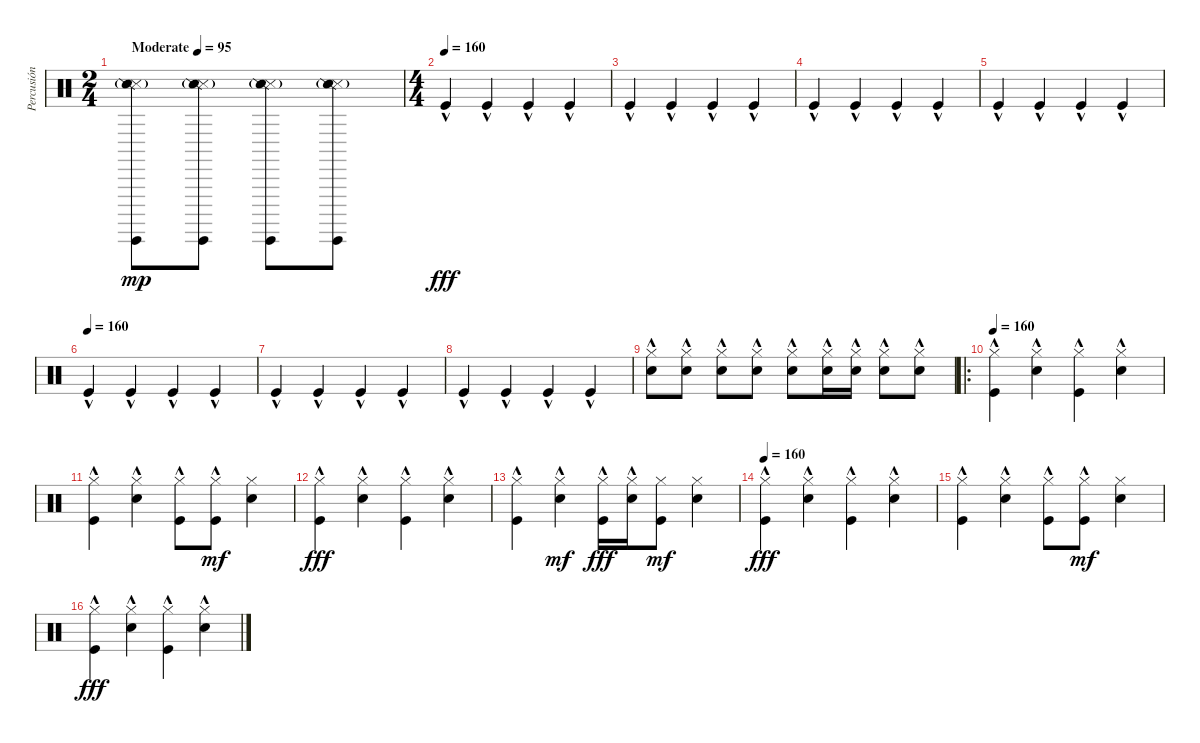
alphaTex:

\track ("Percusión" "Percusión") {instrument percussion}
\staff {score}
\articulation defaults
\ts (2 4)
\tempo (95 "Moderate")
\tempo 75
\tempo (95 "Moderate")
\clef neutral
\ks c
("Snare (side stick) 3"{g} "Guiro (hit)" "Snare (side stick) 2").8{dy mp} ("Snare (side stick) 3"{g} "Guiro (hit)" "Snare (side stick) 2").8 ("Snare (side stick) 3"{g} "Guiro (hit)" "Snare (side stick) 2").8 ("Snare (side stick) 3"{g} "Guiro (hit)" "Snare (side stick) 2").8 |
\ts (4 4)
\tempo (160)
"Kick (hit)"{hac}.4{dy fff} "Kick (hit)"{hac}.4 "Kick (hit)"{hac}.4 "Kick (hit)"{hac}.4 |
"Kick (hit)"{hac}.4 "Kick (hit)"{hac}.4 "Kick (hit)"{hac}.4 "Kick (hit)"{hac}.4 |
"Kick (hit)"{hac}.4 "Kick (hit)"{hac}.4 "Kick (hit)"{hac}.4 "Kick (hit)"{hac}.4 |
"Kick (hit)"{hac}.4 "Kick (hit)"{hac}.4 "Kick (hit)"{hac}.4 "Kick (hit)"{hac}.4 |
\tempo (160)
"Kick (hit)"{hac}.4 "Kick (hit)"{hac}.4 "Kick (hit)"{hac}.4 "Kick (hit)"{hac}.4 |
"Kick (hit)"{hac}.4 "Kick (hit)"{hac}.4 "Kick (hit)"{hac}.4 "Kick (hit)"{hac}.4 |
"Kick (hit)"{hac}.4 "Kick (hit)"{hac}.4 "Kick (hit)"{hac}.4 "Kick (hit)"{hac}.4 |
("Hi-Hat (closed)"{hac} "Snare (hit) 2"{hac}).8 ("Hi-Hat (closed)"{hac} "Snare (hit) 2"{hac}).8 ("Hi-Hat (closed)"{hac} "Snare (hit) 2"{hac}).8 ("Hi-Hat (closed)"{hac} "Snare (hit) 2"{hac}).8 ("Hi-Hat (closed)"{hac} "Snare (hit) 2"{hac}).8 ("Hi-Hat (closed)"{hac} "Snare (hit) 2"{hac}).16 ("Hi-Hat (closed)"{hac} "Snare (hit) 2"{hac}).16 ("Hi-Hat (closed)"{hac} "Snare (hit) 2"{hac}).8 ("Hi-Hat (closed)"{hac} "Snare (hit) 2"{hac}).8 |
\ro
\tempo 120
\tempo 160
("Hi-Hat (closed)"{hac} "Kick (hit)"{hac}).4 ("Hi-Hat (closed)"{hac} "Snare (hit) 2"{hac}).4 ("Hi-Hat (closed)"{hac} "Kick (hit)"{hac}).4 ("Hi-Hat (closed)"{hac} "Snare (hit) 2"{hac}).4 |
("Hi-Hat (closed)"{hac} "Kick (hit)"{hac}).4 ("Hi-Hat (closed)"{hac} "Snare (hit) 2"{hac}).4 ("Hi-Hat (closed)"{hac} "Kick (hit)"{hac}).8 ("Hi-Hat (closed)"{hac} "Kick (hit)").8{dy mf} ("Hi-Hat (closed)" "Snare (hit) 2").4 |
("Hi-Hat (closed)"{hac} "Kick (hit)"{hac}).4{dy fff} ("Hi-Hat (closed)"{hac} "Snare (hit) 2"{hac}).4 ("Hi-Hat (closed)"{hac} "Kick (hit)"{hac}).4 ("Hi-Hat (closed)"{hac} "Snare (hit) 2"{hac}).4 |
("Hi-Hat (closed)"{hac} "Kick (hit)"{hac}).4 ("Hi-Hat (closed)"{hac} "Snare (hit) 2").4{dy mf} ("Hi-Hat (closed)"{hac} "Kick (hit)"{hac}).16{dy fff} ("Hi-Hat (closed)"{hac} "Snare (hit) 2"{hac}).16 ("Kick (hit)" "Hi-Hat (closed)").8{dy mf} ("Hi-Hat (closed)" "Snare (hit) 2").4 |
\tempo 120
\tempo 160
("Hi-Hat (closed)"{hac} "Kick (hit)"{hac}).4{dy fff} ("Hi-Hat (closed)"{hac} "Snare (hit) 2"{hac}).4 ("Hi-Hat (closed)"{hac} "Kick (hit)"{hac}).4 ("Hi-Hat (closed)"{hac} "Snare (hit) 2"{hac}).4 |
("Hi-Hat (closed)"{hac} "Kick (hit)"{hac}).4 ("Hi-Hat (closed)"{hac} "Snare (hit) 2"{hac}).4 ("Hi-Hat (closed)"{hac} "Kick (hit)"{hac}).8 ("Hi-Hat (closed)"{hac} "Kick (hit)").8{dy mf} ("Hi-Hat (closed)" "Snare (hit) 2").4 |
("Hi-Hat (closed)"{hac} "Kick (hit)"{hac}).4{dy fff} ("Hi-Hat (closed)"{hac} "Snare (hit) 2"{hac}).4 ("Hi-Hat (closed)"{hac} "Kick (hit)"{hac}).4 ("Hi-Hat (closed)"{hac} "Snare (hit) 2"{hac}).4
